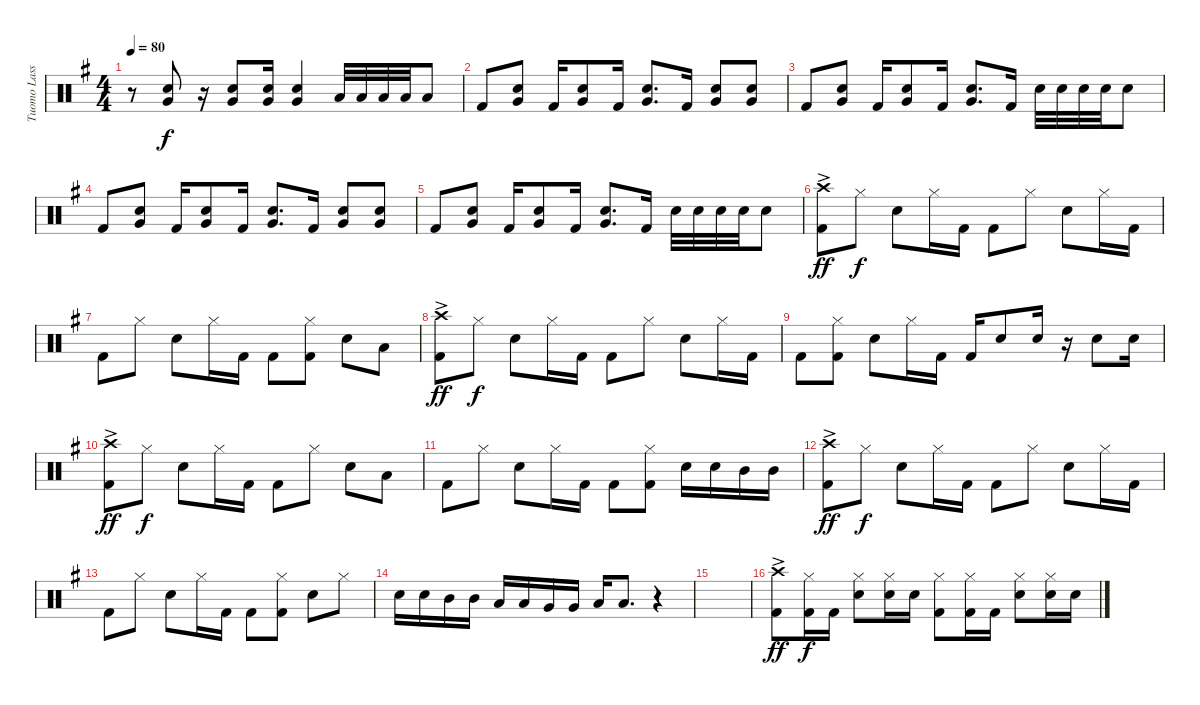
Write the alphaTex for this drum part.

\track ("Tuomo Lassila" "Tuomo Lass") {instrument percussion}
\staff {score}
\articulation defaults
\ts (4 4)
\tempo 80
\clef neutral
\ks g
r.8{dy f volume 16} ("Electric Snare (hit)" "Very Low Tom (hit)").8 r.16 ("Electric Snare (hit)" "Very Low Tom (hit)").8 ("Electric Snare (hit)" "Very Low Tom (hit)").16 ("Electric Snare (hit)" "Very Low Tom (hit)").4 "Low Tom (hit)".32 "Low Tom (hit)".32 "Low Tom (hit)".32 "Low Tom (hit)".32 "Low Tom (hit)".8 |
"Kick (hit) 2".8{volume 16} ("Electric Snare (hit)" "Very Low Tom (hit)").8 "Kick (hit) 2".16 ("Electric Snare (hit)" "Very Low Tom (hit)").8 "Kick (hit) 2".16 ("Electric Snare (hit)" "Very Low Tom (hit)").8{d} "Kick (hit) 2".16 ("Very Low Tom (hit)" "Electric Snare (hit)").8 ("Very Low Tom (hit)" "Electric Snare (hit)").8 |
"Kick (hit) 2".8{volume 16} ("Electric Snare (hit)" "Very Low Tom (hit)").8 "Kick (hit) 2".16 ("Electric Snare (hit)" "Very Low Tom (hit)").8 "Kick (hit) 2".16 ("Electric Snare (hit)" "Very Low Tom (hit)").8{d} "Kick (hit) 2".16 "Electric Snare (hit)".32 "Electric Snare (hit)".32 "Electric Snare (hit)".32 "Electric Snare (hit)".32 "Electric Snare (hit)".8 |
"Kick (hit) 2".8{volume 16} ("Electric Snare (hit)" "Very Low Tom (hit)").8 "Kick (hit) 2".16 ("Electric Snare (hit)" "Very Low Tom (hit)").8 "Kick (hit) 2".16 ("Electric Snare (hit)" "Very Low Tom (hit)").8{d} "Kick (hit) 2".16 ("Very Low Tom (hit)" "Electric Snare (hit)").8 ("Very Low Tom (hit)" "Electric Snare (hit)").8 |
"Kick (hit) 2".8{volume 16} ("Electric Snare (hit)" "Very Low Tom (hit)").8 "Kick (hit) 2".16 ("Electric Snare (hit)" "Very Low Tom (hit)").8 "Kick (hit) 2".16 ("Electric Snare (hit)" "Very Low Tom (hit)").8{d} "Kick (hit) 2".16 "Electric Snare (hit)".32 "Electric Snare (hit)".32 "Electric Snare (hit)".32 "Electric Snare (hit)".32 "Electric Snare (hit)".8 |
("Crash high (hit)"{ac} "Kick (hit) 2"{ac}).8{dy ff} "Hi-Hat (closed)".8{dy f} "Electric Snare (hit)".8 "Hi-Hat (closed)".16 "Kick (hit) 2".16 "Kick (hit) 2".8 "Hi-Hat (closed)".8 "Electric Snare (hit)".8 "Hi-Hat (closed)".16 "Kick (hit) 2".16 |
"Kick (hit) 2".8 "Hi-Hat (closed)".8 "Electric Snare (hit)".8 "Hi-Hat (closed)".16 "Kick (hit) 2".16 "Kick (hit) 2".8 ("Hi-Hat (closed)" "Kick (hit) 2").8 "Electric Snare (hit)".8 "Low Tom (hit)".8 |
("Crash high (hit)"{ac} "Kick (hit) 2"{ac}).8{dy ff} "Hi-Hat (closed)".8{dy f} "Electric Snare (hit)".8 "Hi-Hat (closed)".16 "Kick (hit) 2".16 "Kick (hit) 2".8 "Hi-Hat (closed)".8 "Electric Snare (hit)".8 "Hi-Hat (closed)".16 "Kick (hit) 2".16 |
"Kick (hit) 2".8 ("Hi-Hat (closed)" "Kick (hit) 2").8 "Electric Snare (hit)".8 "Hi-Hat (closed)".16 "Kick (hit) 2".16 "Kick (hit) 2".16 "Electric Snare (hit)".8 "Electric Snare (hit)".16 r.16 "Electric Snare (hit)".8 "Electric Snare (hit)".16 |
("Crash high (hit)"{ac} "Kick (hit) 2"{ac}).8{dy ff} "Hi-Hat (closed)".8{dy f} "Electric Snare (hit)".8 "Hi-Hat (closed)".16 "Kick (hit) 2".16 "Kick (hit) 2".8 "Hi-Hat (closed)".8 "Electric Snare (hit)".8 "Low Tom (hit)".8 |
"Kick (hit) 2".8 "Hi-Hat (closed)".8 "Electric Snare (hit)".8 "Hi-Hat (closed)".16 "Kick (hit) 2".16 "Kick (hit) 2".8 ("Hi-Hat (closed)" "Kick (hit) 2").8 "Electric Snare (hit)".16 "Electric Snare (hit)".16 "Mid Tom (hit)".16 "Mid Tom (hit)".16 |
("Crash high (hit)"{ac} "Kick (hit) 2"{ac}).8{dy ff} "Hi-Hat (closed)".8{dy f} "Electric Snare (hit)".8 "Hi-Hat (closed)".16 "Kick (hit) 2".16 "Kick (hit) 2".8 "Hi-Hat (closed)".8 "Electric Snare (hit)".8 "Hi-Hat (closed)".16 "Kick (hit) 2".16 |
"Kick (hit) 2".8 "Hi-Hat (closed)".8 "Electric Snare (hit)".8 "Hi-Hat (closed)".16 "Kick (hit) 2".16 "Kick (hit) 2".8 ("Hi-Hat (closed)" "Kick (hit) 2").8 "Electric Snare (hit)".8 "Hi-Hat (closed)".8 |
"Electric Snare (hit)".16 "Electric Snare (hit)".16 "Mid Tom (hit)".16 "Mid Tom (hit)".16 "Low Tom (hit)".16 "Low Tom (hit)".16 "Very Low Tom (hit)".16 "Very Low Tom (hit)".16 "Low Floor Tom (hit)".16 "Low Floor Tom (hit)".8{d} r.4 |
|
("Crash high (hit)"{ac} "Kick (hit) 2"{ac}).8{dy ff} ("Hi-Hat (closed)" "Kick (hit) 2").16{dy f} "Kick (hit) 2".16 ("Hi-Hat (closed)" "Electric Snare (hit)").8 ("Hi-Hat (closed)" "Electric Snare (hit)").16 "Electric Snare (hit)".16 ("Hi-Hat (closed)" "Kick (hit) 2").8 ("Hi-Hat (closed)" "Kick (hit) 2").16 "Kick (hit) 2".16 ("Hi-Hat (closed)" "Electric Snare (hit)").8 ("Hi-Hat (closed)" "Electric Snare (hit)").16 "Electric Snare (hit)".16
